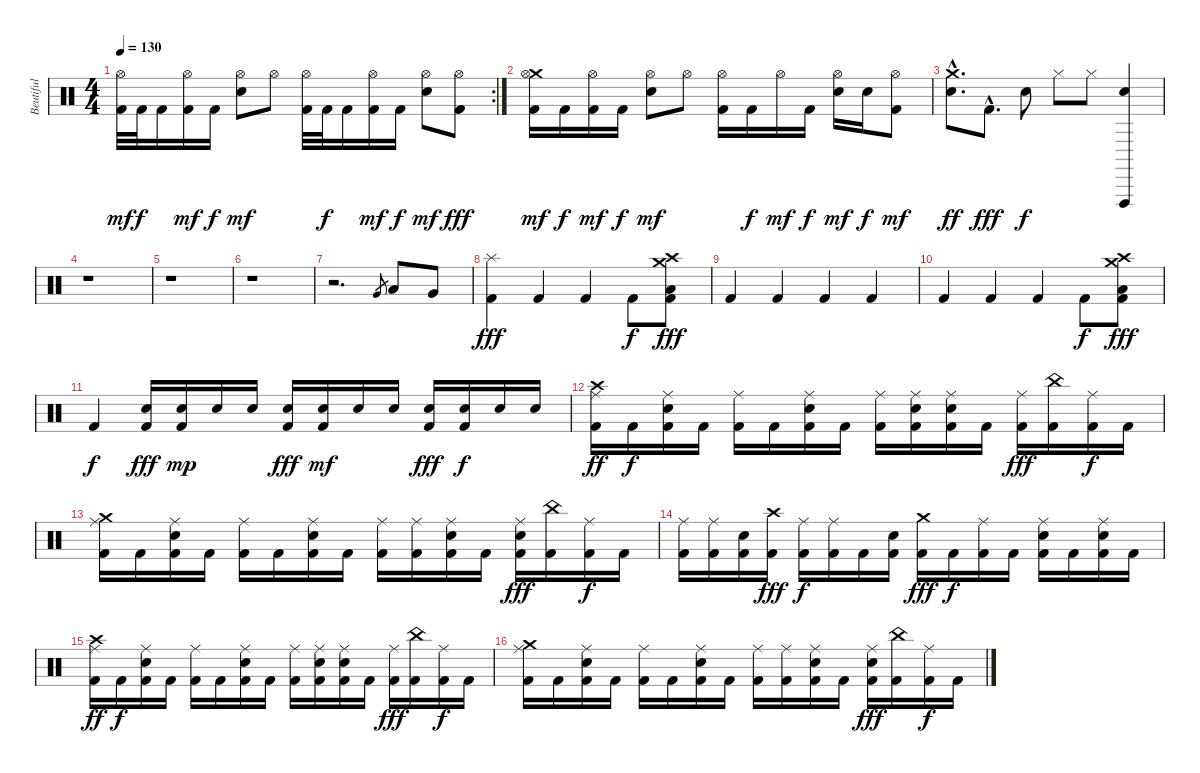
\track ("Beutiful" "Beutiful") {instrument percussion}
\staff {score}
\articulation defaults
\rc 2
\ts (4 4)
\tempo 130
\clef neutral
\ks c
("Hi-Hat (open)" "Kick (hit) 2").32{dy mf} "Kick (hit) 2".32{dy f} "Kick (hit) 2".16 ("Hi-Hat (open)" "Kick (hit) 2").16{dy mf} "Kick (hit) 2".16{dy f} ("Hi-Hat (open)" "Electric Snare (hit)").8{dy mf} "Hi-Hat (open)".8 ("Hi-Hat (open)" "Kick (hit) 2").32 "Kick (hit) 2".32{dy f} "Kick (hit) 2".16 ("Hi-Hat (open)" "Kick (hit) 2").16{dy mf} "Kick (hit) 2".16{dy f} ("Hi-Hat (open)" "Electric Snare (hit)").8{dy mf} ("Hi-Hat (open)" "Kick (hit) 2").8{dy fff} |
("Crash medium (hit)" "Hi-Hat (open)" "Kick (hit) 2").16{dy mf} "Kick (hit) 2".16{dy f} ("Hi-Hat (open)" "Kick (hit) 2").16{dy mf} "Kick (hit) 2".16{dy f} ("Hi-Hat (open)" "Electric Snare (hit)").8{dy mf} "Hi-Hat (open)".8 ("Hi-Hat (open)" "Kick (hit) 2").16 "Kick (hit) 2".16{dy f} "Hi-Hat (open)".16{dy mf} "Kick (hit) 2".16{dy f} ("Hi-Hat (open)" "Electric Snare (hit)").16{dy mf} "Electric Snare (hit)".16{dy f} ("Hi-Hat (open)" "Kick (hit) 2").8{dy mf} |
("Crash medium (hit)"{hac} "Electric Snare (hit)"{hac}).8{d dy ff} "Kick (hit) 2"{hac}.8{d dy fff} "Electric Snare (hit)".8{dy f} "Hi-Hat (closed)".8 "Hi-Hat (closed)".8 ("Vibraslap (hit)" "Electric Snare (hit)").4 |
r.1 |
r.1 |
r.1 |
r.2{d} "Very Low Tom (hit)".8{gr} "Low Tom (hit)".8 "Very Low Tom (hit)".8 |
("Splash (hit)" "Kick (hit) 2").4{dy fff} "Kick (hit) 2".4 "Kick (hit) 2".4 "Kick (hit) 2".8{dy f} ("Crash high (hit)" "Crash medium (hit)" "Low Tom (hit)" "Kick (hit) 2").8{dy fff} |
"Kick (hit) 2".4 "Kick (hit) 2".4 "Kick (hit) 2".4 "Kick (hit) 2".4 |
"Kick (hit) 2".4 "Kick (hit) 2".4 "Kick (hit) 2".4 "Kick (hit) 2".8{dy f} ("Crash high (hit)" "Crash medium (hit)" "Low Tom (hit)" "Kick (hit) 2").8{dy fff} |
"Kick (hit) 2".4{dy f} ("Electric Snare (hit)" "Kick (hit) 2").16{dy fff} ("Electric Snare (hit)" "Kick (hit) 2").16{dy mp} "Electric Snare (hit)".16 "Electric Snare (hit)".16 ("Electric Snare (hit)" "Kick (hit) 2").16{dy fff} ("Electric Snare (hit)" "Kick (hit) 2").16{dy mf} "Electric Snare (hit)".16 "Electric Snare (hit)".16 ("Electric Snare (hit)" "Kick (hit) 2").16{dy fff} ("Electric Snare (hit)" "Kick (hit) 2").16{dy f} "Electric Snare (hit)".16 "Electric Snare (hit)".16 |
("Ride (middle)" "Crash high (hit)" "Kick (hit) 2").16{dy ff} "Kick (hit) 2".16{dy f} ("Ride (middle)" "Electric Snare (hit)" "Kick (hit) 2").16 "Kick (hit) 2".16 ("Ride (middle)" "Kick (hit) 2").16 "Kick (hit) 2".16 ("Ride (middle)" "Electric Snare (hit)" "Kick (hit) 2").16 "Kick (hit) 2".16 ("Ride (middle)" "Kick (hit) 2").16 ("Ride (middle)" "Electric Snare (hit)" "Kick (hit) 2").16 ("Ride (middle)" "Electric Snare (hit)" "Kick (hit) 2").16 "Kick (hit) 2".16 ("Ride (middle)" "Kick (hit) 2").16{dy fff} ("China (hit)" "Kick (hit) 2").16 ("Ride (middle)" "Kick (hit) 2").16{dy f} "Kick (hit) 2".16 |
("Ride (middle)" "Crash medium (hit)" "Kick (hit) 2").16 "Kick (hit) 2".16 ("Ride (middle)" "Electric Snare (hit)" "Kick (hit) 2").16 "Kick (hit) 2".16 ("Ride (middle)" "Kick (hit) 2").16 "Kick (hit) 2".16 ("Ride (middle)" "Electric Snare (hit)" "Kick (hit) 2").16 "Kick (hit) 2".16 ("Ride (middle)" "Kick (hit) 2").16 ("Ride (middle)" "Kick (hit) 2").16 ("Ride (middle)" "Electric Snare (hit)" "Kick (hit) 2").16 "Kick (hit) 2".16 ("Ride (middle)" "Electric Snare (hit)" "Kick (hit) 2").16{dy fff} ("China (hit)" "Kick (hit) 2").16 ("Ride (middle)" "Kick (hit) 2").16{dy f} "Kick (hit) 2".16 |
("Ride (middle)" "Kick (hit) 2").16 ("Ride (middle)" "Kick (hit) 2").16 ("Electric Snare (hit)" "Kick (hit) 2").16 ("Crash high (hit)" "Kick (hit) 2").16{dy fff} ("Ride (middle)" "Kick (hit) 2").16{dy f} ("Ride (middle)" "Kick (hit) 2").16 "Kick (hit) 2".16 ("Electric Snare (hit)" "Kick (hit) 2").16 ("Crash medium (hit)" "Kick (hit) 2").16{dy fff} "Kick (hit) 2".16{dy f} ("Ride (middle)" "Kick (hit) 2").16 "Kick (hit) 2".16 ("Ride (middle)" "Electric Snare (hit)" "Kick (hit) 2").16 "Kick (hit) 2".16 ("Ride (middle)" "Electric Snare (hit)" "Kick (hit) 2").16 "Kick (hit) 2".16 |
("Ride (middle)" "Crash high (hit)" "Kick (hit) 2").16{dy ff} "Kick (hit) 2".16{dy f} ("Ride (middle)" "Electric Snare (hit)" "Kick (hit) 2").16 "Kick (hit) 2".16 ("Ride (middle)" "Kick (hit) 2").16 "Kick (hit) 2".16 ("Ride (middle)" "Electric Snare (hit)" "Kick (hit) 2").16 "Kick (hit) 2".16 ("Ride (middle)" "Kick (hit) 2").16 ("Ride (middle)" "Electric Snare (hit)" "Kick (hit) 2").16 ("Ride (middle)" "Electric Snare (hit)" "Kick (hit) 2").16 "Kick (hit) 2".16 ("Ride (middle)" "Kick (hit) 2").16{dy fff} ("China (hit)" "Kick (hit) 2").16 ("Ride (middle)" "Kick (hit) 2").16{dy f} "Kick (hit) 2".16 |
("Ride (middle)" "Crash medium (hit)" "Kick (hit) 2").16 "Kick (hit) 2".16 ("Ride (middle)" "Electric Snare (hit)" "Kick (hit) 2").16 "Kick (hit) 2".16 ("Ride (middle)" "Kick (hit) 2").16 "Kick (hit) 2".16 ("Ride (middle)" "Electric Snare (hit)" "Kick (hit) 2").16 "Kick (hit) 2".16 ("Ride (middle)" "Kick (hit) 2").16 ("Ride (middle)" "Kick (hit) 2").16 ("Ride (middle)" "Electric Snare (hit)" "Kick (hit) 2").16 "Kick (hit) 2".16 ("Ride (middle)" "Electric Snare (hit)" "Kick (hit) 2").16{dy fff} ("China (hit)" "Kick (hit) 2").16 ("Ride (middle)" "Kick (hit) 2").16{dy f} "Kick (hit) 2".16
